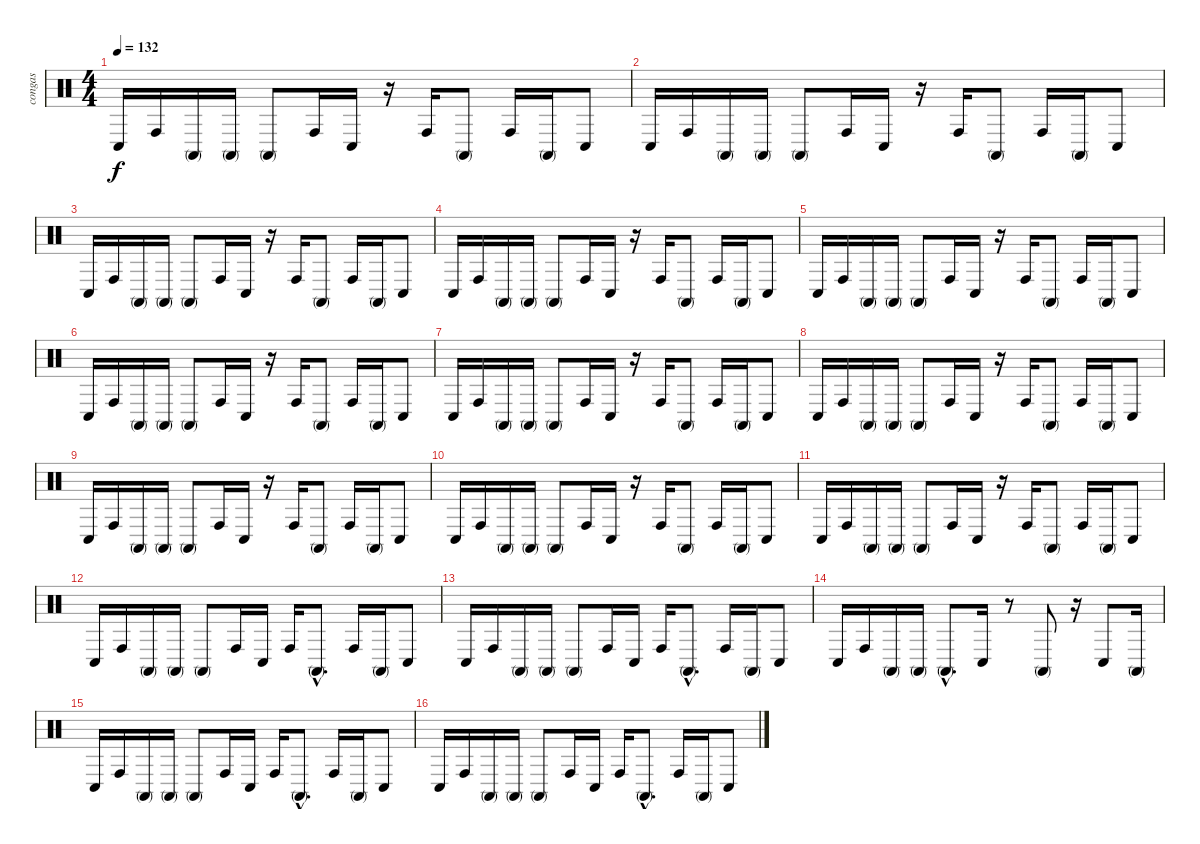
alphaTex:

\track ("congas" "congas") {instrument percussion}
\staff {score}
\articulation defaults
\ts (4 4)
\tempo 132
\clef neutral
\ks c "Conga low (hit)".16{dy f} "Conga high (hit)".16 "Conga high (mute)".16 "Conga high (mute)".16 "Conga high (mute)".8 "Conga high (hit)".16 "Conga low (hit)".16
r.16 "Conga high (hit)".16 "Conga high (mute)".8 "Conga high (hit)".16 "Conga high (mute)".16 "Conga low (hit)".8 |
"Conga low (hit)".16 "Conga high (hit)".16 "Conga high (mute)".16 "Conga high (mute)".16 "Conga high (mute)".8 "Conga high (hit)".16 "Conga low (hit)".16 r.16 "Conga high (hit)".16 "Conga high (mute)".8 "Conga high (hit)".16 "Conga high (mute)".16 "Conga low (hit)".8 |
"Conga low (hit)".16 "Conga high (hit)".16 "Conga high (mute)".16 "Conga high (mute)".16 "Conga high (mute)".8 "Conga high (hit)".16 "Conga low (hit)".16 r.16 "Conga high (hit)".16 "Conga high (mute)".8 "Conga high (hit)".16 "Conga high (mute)".16 "Conga low (hit)".8 |
"Conga low (hit)".16 "Conga high (hit)".16 "Conga high (mute)".16 "Conga high (mute)".16 "Conga high (mute)".8 "Conga high (hit)".16 "Conga low (hit)".16 r.16 "Conga high (hit)".16 "Conga high (mute)".8 "Conga high (hit)".16 "Conga high (mute)".16 "Conga low (hit)".8 |
"Conga low (hit)".16 "Conga high (hit)".16 "Conga high (mute)".16 "Conga high (mute)".16 "Conga high (mute)".8 "Conga high (hit)".16 "Conga low (hit)".16 r.16 "Conga high (hit)".16 "Conga high (mute)".8 "Conga high (hit)".16 "Conga high (mute)".16 "Conga low (hit)".8 |
"Conga low (hit)".16 "Conga high (hit)".16 "Conga high (mute)".16 "Conga high (mute)".16 "Conga high (mute)".8 "Conga high (hit)".16 "Conga low (hit)".16 r.16 "Conga high (hit)".16 "Conga high (mute)".8 "Conga high (hit)".16 "Conga high (mute)".16 "Conga low (hit)".8 |
"Conga low (hit)".16 "Conga high (hit)".16 "Conga high (mute)".16 "Conga high (mute)".16 "Conga high (mute)".8 "Conga high (hit)".16 "Conga low (hit)".16 r.16 "Conga high (hit)".16 "Conga high (mute)".8 "Conga high (hit)".16 "Conga high (mute)".16 "Conga low (hit)".8 |
"Conga low (hit)".16 "Conga high (hit)".16 "Conga high (mute)".16 "Conga high (mute)".16 "Conga high (mute)".8 "Conga high (hit)".16 "Conga low (hit)".16 r.16 "Conga high (hit)".16 "Conga high (mute)".8 "Conga high (hit)".16 "Conga high (mute)".16 "Conga low (hit)".8 |
"Conga low (hit)".16 "Conga high (hit)".16 "Conga high (mute)".16 "Conga high (mute)".16 "Conga high (mute)".8 "Conga high (hit)".16 "Conga low (hit)".16 r.16 "Conga high (hit)".16 "Conga high (mute)".8 "Conga high (hit)".16 "Conga high (mute)".16 "Conga low (hit)".8 |
"Conga low (hit)".16 "Conga high (hit)".16 "Conga high (mute)".16 "Conga high (mute)".16 "Conga high (mute)".8 "Conga high (hit)".16 "Conga low (hit)".16 r.16 "Conga high (hit)".16 "Conga high (mute)".8 "Conga high (hit)".16 "Conga high (mute)".16 "Conga low (hit)".8 |
"Conga low (hit)".16 "Conga high (hit)".16 "Conga high (mute)".16 "Conga high (mute)".16 "Conga high (mute)".8 "Conga high (hit)".16 "Conga low (hit)".16 r.16 "Conga high (hit)".16 "Conga high (mute)".8 "Conga high (hit)".16 "Conga high (mute)".16 "Conga low (hit)".8 |
"Conga low (hit)".16 "Conga high (hit)".16 "Conga high (mute)".16 "Conga high (mute)".16 "Conga high (mute)".8 "Conga high (hit)".16 "Conga low (hit)".16 "Conga high (hit)".16 "Conga high (mute)"{hac}.8{d} "Conga high (hit)".16 "Conga high (mute)".16 "Conga low (hit)".8 |
"Conga low (hit)".16 "Conga high (hit)".16 "Conga high (mute)".16 "Conga high (mute)".16 "Conga high (mute)".8 "Conga high (hit)".16 "Conga low (hit)".16 "Conga high (hit)".16 "Conga high (mute)"{hac}.8{d} "Conga high (hit)".16 "Conga high (mute)".16 "Conga low (hit)".8 |
"Conga low (hit)".16 "Conga high (hit)".16 "Conga high (mute)".16 "Conga high (mute)".16 "Conga high (mute)"{hac}.8{d} "Conga low (hit)".16 r.8 "Conga high (mute)".8 r.16 "Conga low (hit)".8 "Conga high (mute)".16 |
"Conga low (hit)".16 "Conga high (hit)".16 "Conga high (mute)".16 "Conga high (mute)".16 "Conga high (mute)".8 "Conga high (hit)".16 "Conga low (hit)".16 "Conga high (hit)".16 "Conga high (mute)"{hac}.8{d} "Conga high (hit)".16 "Conga high (mute)".16 "Conga low (hit)".8 |
"Conga low (hit)".16 "Conga high (hit)".16 "Conga high (mute)".16 "Conga high (mute)".16 "Conga high (mute)".8 "Conga high (hit)".16 "Conga low (hit)".16 "Conga high (hit)".16 "Conga high (mute)"{hac}.8{d} "Conga high (hit)".16 "Conga high (mute)".16 "Conga low (hit)".8
